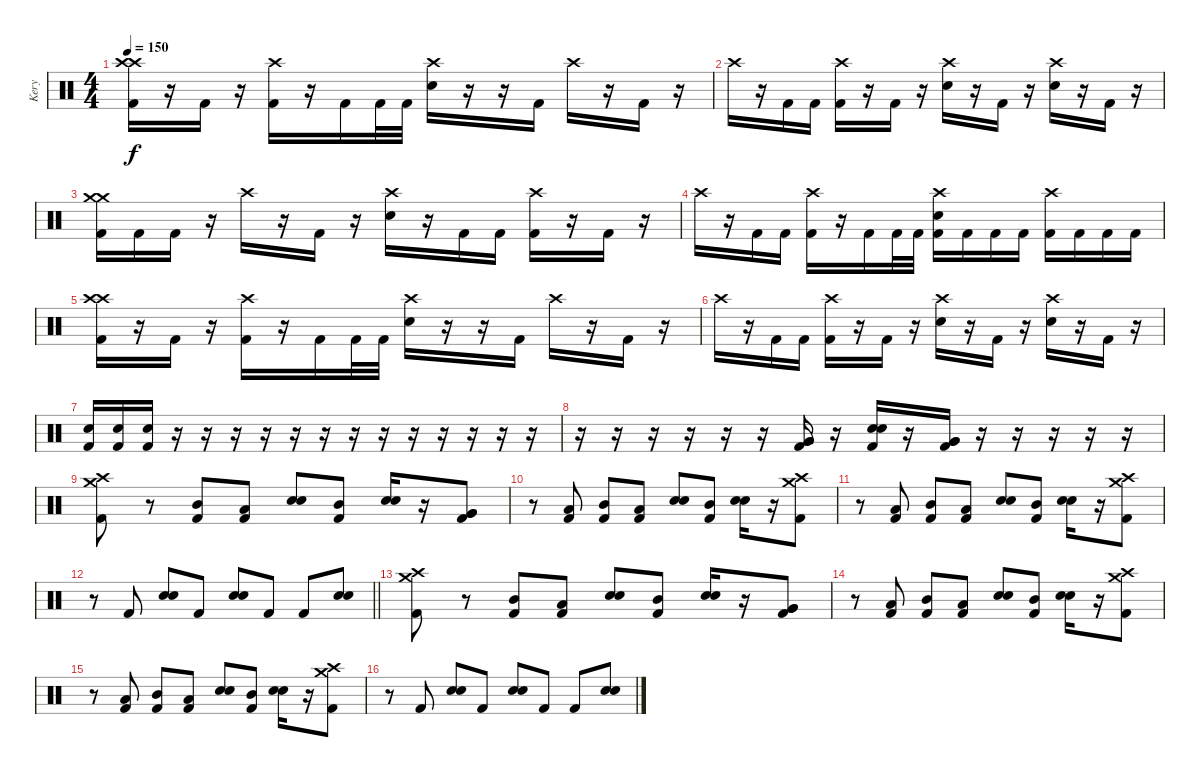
\track ("Kery" "Kery") {instrument percussion}
\staff {score}
\articulation defaults
\ts (4 4)
\tempo 150
\clef neutral
\ks c
("Crash high (hit)" "Crash high (hit)" "Kick (hit) 2").16{dy f} r.16 "Kick (hit) 2".16 r.16 ("Crash high (hit)" "Kick (hit) 2").16 r.16 "Kick (hit) 2".16 "Kick (hit) 2".32 "Kick (hit) 2".32 ("Crash high (hit)" "Electric Snare (hit)").16 r.16 r.16 "Kick (hit) 2".16 "Crash high (hit)".16 r.16 "Kick (hit) 2".16 r.16 |
"Crash high (hit)".16 r.16 "Kick (hit) 2".16 "Kick (hit) 2".16 ("Crash high (hit)" "Kick (hit) 2").16 r.16 "Kick (hit) 2".16 r.16 ("Crash high (hit)" "Electric Snare (hit)").16 r.16 "Kick (hit) 2".16 r.16 ("Crash high (hit)" "Electric Snare (hit)").16 r.16 "Kick (hit) 2".16 r.16 |
("Crash medium (hit)" "Crash medium (hit)" "Kick (hit) 2").16 "Kick (hit) 2".16 "Kick (hit) 2".16 r.16 "Crash high (hit)".16 r.16 "Kick (hit) 2".16 r.16 ("Crash high (hit)" "Electric Snare (hit)").16 r.16 "Kick (hit) 2".16 "Kick (hit) 2".16 ("Crash high (hit)" "Kick (hit) 2").16 r.16 "Kick (hit) 2".16 r.16 |
"Crash high (hit)".16 r.16 "Kick (hit) 2".16 "Kick (hit) 2".16 ("Crash high (hit)" "Kick (hit) 2").16 r.16 "Kick (hit) 2".16 "Kick (hit) 2".32 "Kick (hit) 2".32 ("Crash high (hit)" "Electric Snare (hit)" "Kick (hit) 2").16 "Kick (hit) 2".16 "Kick (hit) 2".16 "Kick (hit) 2".16 ("Crash high (hit)" "Kick (hit) 2").16 "Kick (hit) 2".16 "Kick (hit) 2".16 "Kick (hit) 2".16 |
("Crash high (hit)" "Crash high (hit)" "Kick (hit) 2").16 r.16 "Kick (hit) 2".16 r.16 ("Crash high (hit)" "Kick (hit) 2").16 r.16 "Kick (hit) 2".16 "Kick (hit) 2".32 "Kick (hit) 2".32 ("Crash high (hit)" "Electric Snare (hit)").16 r.16 r.16 "Kick (hit) 2".16 "Crash high (hit)".16 r.16 "Kick (hit) 2".16 r.16 |
"Crash high (hit)".16 r.16 "Kick (hit) 2".16 "Kick (hit) 2".16 ("Crash high (hit)" "Kick (hit) 2").16 r.16 "Kick (hit) 2".16 r.16 ("Crash high (hit)" "Electric Snare (hit)").16 r.16 "Kick (hit) 2".16 r.16 ("Crash high (hit)" "Electric Snare (hit)").16 r.16 "Kick (hit) 2".16 r.16 |
("Electric Snare (hit)" "Kick (hit) 2").16 ("Electric Snare (hit)" "Kick (hit) 2").16 ("Electric Snare (hit)" "Kick (hit) 2").16 r.16 r.16 r.16 r.16 r.16 r.16 r.16 r.16 r.16 r.16 r.16 r.16 r.16 |
r.16 r.16 r.16 r.16 r.16 r.16 ("Very Low Tom (hit)" "Very Low Tom (hit)" "Kick (hit) 2").16 r.16 ("Electric Snare (hit)" "Electric Snare (hit)" "Kick (hit) 2").16 r.16 ("Very Low Tom (hit)" "Very Low Tom (hit)" "Kick (hit) 2").16 r.16 r.16 r.16 r.16 r.16 |
("Crash high (hit)" "Crash medium (hit)" "Kick (hit) 2").8 r.8 ("Mid Tom (hit)" "Kick (hit) 2").8 ("Low Tom (hit)" "Kick (hit) 2").8 ("Electric Snare (hit)" "Electric Snare (hit)").8 ("Mid Tom (hit)" "Kick (hit) 2").8 ("Electric Snare (hit)" "Electric Snare (hit)").16 r.16 ("Very Low Tom (hit)" "Very Low Tom (hit)" "Kick (hit) 2").8 |
r.8 ("Low Tom (hit)" "Kick (hit) 2").8 ("Mid Tom (hit)" "Kick (hit) 2").8 ("Low Tom (hit)" "Kick (hit) 2").8 ("Electric Snare (hit)" "Electric Snare (hit)").8 ("Mid Tom (hit)" "Kick (hit) 2").8 ("Electric Snare (hit)" "Electric Snare (hit)").16 r.16 ("Crash high (hit)" "Crash medium (hit)" "Kick (hit) 2").8 |
r.8 ("Low Tom (hit)" "Kick (hit) 2").8 ("Mid Tom (hit)" "Kick (hit) 2").8 ("Low Tom (hit)" "Kick (hit) 2").8 ("Electric Snare (hit)" "Electric Snare (hit)").8 ("Mid Tom (hit)" "Kick (hit) 2").8 ("Electric Snare (hit)" "Electric Snare (hit)").16 r.16 ("Crash high (hit)" "Crash medium (hit)" "Kick (hit) 2").8 |
\barLineRight lightlight
r.8 "Kick (hit) 2".8 ("Electric Snare (hit)" "Electric Snare (hit)").8 "Kick (hit) 2".8 ("Electric Snare (hit)" "Electric Snare (hit)").8 "Kick (hit) 2".8 "Kick (hit) 2".8 ("Electric Snare (hit)" "Electric Snare (hit)").8 |
("Crash high (hit)" "Crash medium (hit)" "Kick (hit) 2").8 r.8 ("Mid Tom (hit)" "Kick (hit) 2").8 ("Low Tom (hit)" "Kick (hit) 2").8 ("Electric Snare (hit)" "Electric Snare (hit)").8 ("Mid Tom (hit)" "Kick (hit) 2").8 ("Electric Snare (hit)" "Electric Snare (hit)").16 r.16 ("Very Low Tom (hit)" "Very Low Tom (hit)" "Kick (hit) 2").8 |
r.8 ("Low Tom (hit)" "Kick (hit) 2").8 ("Mid Tom (hit)" "Kick (hit) 2").8 ("Low Tom (hit)" "Kick (hit) 2").8 ("Electric Snare (hit)" "Electric Snare (hit)").8 ("Mid Tom (hit)" "Kick (hit) 2").8 ("Electric Snare (hit)" "Electric Snare (hit)").16 r.16 ("Crash high (hit)" "Crash medium (hit)" "Kick (hit) 2").8 |
r.8 ("Low Tom (hit)" "Kick (hit) 2").8 ("Mid Tom (hit)" "Kick (hit) 2").8 ("Low Tom (hit)" "Kick (hit) 2").8 ("Electric Snare (hit)" "Electric Snare (hit)").8 ("Mid Tom (hit)" "Kick (hit) 2").8 ("Electric Snare (hit)" "Electric Snare (hit)").16 r.16 ("Crash high (hit)" "Crash medium (hit)" "Kick (hit) 2").8 |
r.8 "Kick (hit) 2".8 ("Electric Snare (hit)" "Electric Snare (hit)").8 "Kick (hit) 2".8 ("Electric Snare (hit)" "Electric Snare (hit)").8 "Kick (hit) 2".8 "Kick (hit) 2".8 ("Electric Snare (hit)" "Electric Snare (hit)").8
